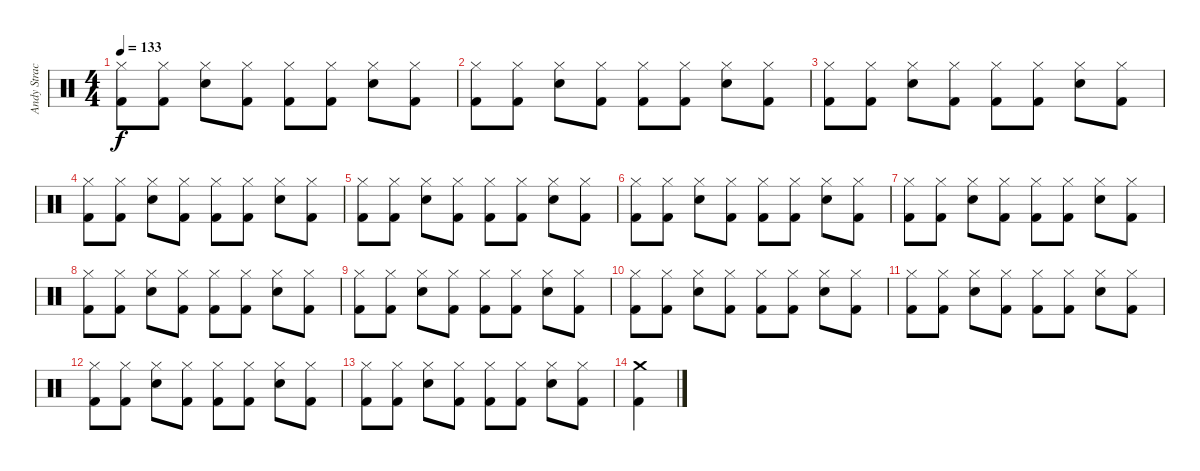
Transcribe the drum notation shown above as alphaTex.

\track ("Andy Strachan" "Andy Strac") {instrument percussion}
\staff {score}
\articulation defaults
\ts (4 4)
\tempo 133
\clef neutral
\ks c
("Hi-Hat (closed)" "Kick (hit) 2").8{dy f} ("Hi-Hat (closed)" "Kick (hit) 2").8 ("Electric Snare (hit)" "Hi-Hat (closed)").8 ("Hi-Hat (closed)" "Kick (hit) 2").8 ("Hi-Hat (closed)" "Kick (hit) 2").8 ("Hi-Hat (closed)" "Kick (hit) 2").8 ("Electric Snare (hit)" "Hi-Hat (closed)").8 ("Hi-Hat (closed)" "Kick (hit) 2").8 |
("Hi-Hat (closed)" "Kick (hit) 2").8 ("Hi-Hat (closed)" "Kick (hit) 2").8 ("Electric Snare (hit)" "Hi-Hat (closed)").8 ("Hi-Hat (closed)" "Kick (hit) 2").8 ("Hi-Hat (closed)" "Kick (hit) 2").8 ("Hi-Hat (closed)" "Kick (hit) 2").8 ("Electric Snare (hit)" "Hi-Hat (closed)").8 ("Hi-Hat (closed)" "Kick (hit) 2").8 |
("Hi-Hat (closed)" "Kick (hit) 2").8 ("Hi-Hat (closed)" "Kick (hit) 2").8 ("Electric Snare (hit)" "Hi-Hat (closed)").8 ("Hi-Hat (closed)" "Kick (hit) 2").8 ("Hi-Hat (closed)" "Kick (hit) 2").8 ("Hi-Hat (closed)" "Kick (hit) 2").8 ("Electric Snare (hit)" "Hi-Hat (closed)").8 ("Hi-Hat (closed)" "Kick (hit) 2").8 |
("Hi-Hat (closed)" "Kick (hit) 2").8 ("Hi-Hat (closed)" "Kick (hit) 2").8 ("Electric Snare (hit)" "Hi-Hat (closed)").8 ("Hi-Hat (closed)" "Kick (hit) 2").8 ("Hi-Hat (closed)" "Kick (hit) 2").8 ("Hi-Hat (closed)" "Kick (hit) 2").8 ("Electric Snare (hit)" "Hi-Hat (closed)").8 ("Hi-Hat (closed)" "Kick (hit) 2").8 |
("Hi-Hat (closed)" "Kick (hit) 2").8 ("Hi-Hat (closed)" "Kick (hit) 2").8 ("Electric Snare (hit)" "Hi-Hat (closed)").8 ("Hi-Hat (closed)" "Kick (hit) 2").8 ("Hi-Hat (closed)" "Kick (hit) 2").8 ("Hi-Hat (closed)" "Kick (hit) 2").8 ("Electric Snare (hit)" "Hi-Hat (closed)").8 ("Hi-Hat (closed)" "Kick (hit) 2").8 |
("Hi-Hat (closed)" "Kick (hit) 2").8 ("Hi-Hat (closed)" "Kick (hit) 2").8 ("Electric Snare (hit)" "Hi-Hat (closed)").8 ("Hi-Hat (closed)" "Kick (hit) 2").8 ("Hi-Hat (closed)" "Kick (hit) 2").8 ("Hi-Hat (closed)" "Kick (hit) 2").8 ("Electric Snare (hit)" "Hi-Hat (closed)").8 ("Hi-Hat (closed)" "Kick (hit) 2").8 |
("Hi-Hat (closed)" "Kick (hit) 2").8 ("Hi-Hat (closed)" "Kick (hit) 2").8 ("Electric Snare (hit)" "Hi-Hat (closed)").8 ("Hi-Hat (closed)" "Kick (hit) 2").8 ("Hi-Hat (closed)" "Kick (hit) 2").8 ("Hi-Hat (closed)" "Kick (hit) 2").8 ("Electric Snare (hit)" "Hi-Hat (closed)").8 ("Hi-Hat (closed)" "Kick (hit) 2").8 |
("Hi-Hat (closed)" "Kick (hit) 2").8 ("Hi-Hat (closed)" "Kick (hit) 2").8 ("Electric Snare (hit)" "Hi-Hat (closed)").8 ("Hi-Hat (closed)" "Kick (hit) 2").8 ("Hi-Hat (closed)" "Kick (hit) 2").8 ("Hi-Hat (closed)" "Kick (hit) 2").8 ("Electric Snare (hit)" "Hi-Hat (closed)").8 ("Hi-Hat (closed)" "Kick (hit) 2").8 |
("Hi-Hat (closed)" "Kick (hit) 2").8 ("Hi-Hat (closed)" "Kick (hit) 2").8 ("Electric Snare (hit)" "Hi-Hat (closed)").8 ("Hi-Hat (closed)" "Kick (hit) 2").8 ("Hi-Hat (closed)" "Kick (hit) 2").8 ("Hi-Hat (closed)" "Kick (hit) 2").8 ("Electric Snare (hit)" "Hi-Hat (closed)").8 ("Hi-Hat (closed)" "Kick (hit) 2").8 |
("Hi-Hat (closed)" "Kick (hit) 2").8 ("Hi-Hat (closed)" "Kick (hit) 2").8 ("Electric Snare (hit)" "Hi-Hat (closed)").8 ("Hi-Hat (closed)" "Kick (hit) 2").8 ("Hi-Hat (closed)" "Kick (hit) 2").8 ("Hi-Hat (closed)" "Kick (hit) 2").8 ("Electric Snare (hit)" "Hi-Hat (closed)").8 ("Hi-Hat (closed)" "Kick (hit) 2").8 |
("Hi-Hat (closed)" "Kick (hit) 2").8 ("Hi-Hat (closed)" "Kick (hit) 2").8 ("Electric Snare (hit)" "Hi-Hat (closed)").8 ("Hi-Hat (closed)" "Kick (hit) 2").8 ("Hi-Hat (closed)" "Kick (hit) 2").8 ("Hi-Hat (closed)" "Kick (hit) 2").8 ("Electric Snare (hit)" "Hi-Hat (closed)").8 ("Hi-Hat (closed)" "Kick (hit) 2").8 |
("Hi-Hat (closed)" "Kick (hit) 2").8 ("Hi-Hat (closed)" "Kick (hit) 2").8 ("Electric Snare (hit)" "Hi-Hat (closed)").8 ("Hi-Hat (closed)" "Kick (hit) 2").8 ("Hi-Hat (closed)" "Kick (hit) 2").8 ("Hi-Hat (closed)" "Kick (hit) 2").8 ("Electric Snare (hit)" "Hi-Hat (closed)").8 ("Hi-Hat (closed)" "Kick (hit) 2").8 |
("Hi-Hat (closed)" "Kick (hit) 2").8 ("Hi-Hat (closed)" "Kick (hit) 2").8 ("Electric Snare (hit)" "Hi-Hat (closed)").8 ("Hi-Hat (closed)" "Kick (hit) 2").8 ("Hi-Hat (closed)" "Kick (hit) 2").8 ("Hi-Hat (closed)" "Kick (hit) 2").8 ("Electric Snare (hit)" "Hi-Hat (closed)").8 ("Hi-Hat (closed)" "Kick (hit) 2").8 |
("Kick (hit) 2" "Crash medium (hit)").4
